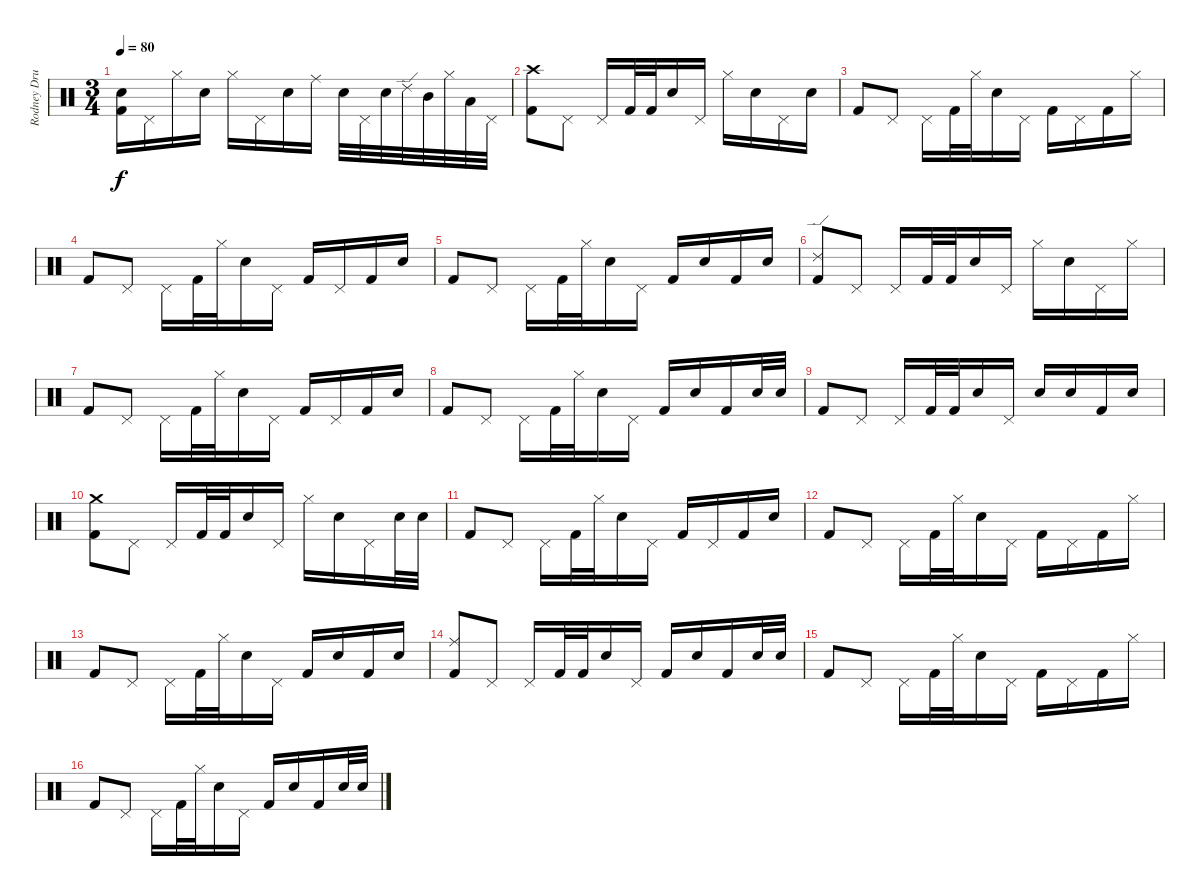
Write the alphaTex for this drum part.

\track ("Rodney Drums" "Rodney Dru") {instrument percussion}
\staff {score}
\articulation defaults
\ts (3 4)
\tempo 80
\clef neutral
\ks c
("Electric Snare (hit)" "Kick (hit) 2").16{dy f} "Pedal Hi-Hat (hit)".16 "Hi-Hat (closed)".16 "Electric Snare (hit)".16 "Hi-Hat (closed)".16 "Pedal Hi-Hat (hit)".16 "Electric Snare (hit)".16 "Ride (middle)".16 "Electric Snare (hit)".32 "Pedal Hi-Hat (hit)".32 "Electric Snare (hit)".32 "Ride (edge) 2".32 "Mid Tom (hit)".32 "Hi-Hat (closed)".32 "Low Tom (hit)".32 "Pedal Hi-Hat (hit)".32 |
("Crash high (hit)" "Kick (hit) 2").8 "Pedal Hi-Hat (hit)".8 "Pedal Hi-Hat (hit)".16 "Kick (hit) 2".32 "Kick (hit) 2".32 "Electric Snare (hit)".16 "Pedal Hi-Hat (hit)".16 "Hi-Hat (closed)".16 "Electric Snare (hit)".16 "Pedal Hi-Hat (hit)".16 "Electric Snare (hit)".16 |
"Kick (hit) 2".8 "Pedal Hi-Hat (hit)".8 "Pedal Hi-Hat (hit)".16 "Kick (hit) 2".32 "Hi-Hat (closed)".32 "Electric Snare (hit)".16 "Pedal Hi-Hat (hit)".16 "Kick (hit) 2".16 "Pedal Hi-Hat (hit)".16 "Kick (hit) 2".16 "Hi-Hat (closed)".16 |
"Kick (hit) 2".8 "Pedal Hi-Hat (hit)".8 "Pedal Hi-Hat (hit)".16 "Kick (hit) 2".32 "Hi-Hat (closed)".32 "Electric Snare (hit)".16 "Pedal Hi-Hat (hit)".16 "Kick (hit) 2".16 "Pedal Hi-Hat (hit)".16 "Kick (hit) 2".16 "Electric Snare (hit)".16 |
"Kick (hit) 2".8 "Pedal Hi-Hat (hit)".8 "Pedal Hi-Hat (hit)".16 "Kick (hit) 2".32 "Hi-Hat (closed)".32 "Electric Snare (hit)".16 "Pedal Hi-Hat (hit)".16 "Kick (hit) 2".16 "Electric Snare (hit)".16 "Kick (hit) 2".16 "Electric Snare (hit)".16 |
("Ride (edge) 2" "Kick (hit) 2").8 "Pedal Hi-Hat (hit)".8 "Pedal Hi-Hat (hit)".16 "Kick (hit) 2".32 "Kick (hit) 2".32 "Electric Snare (hit)".16 "Pedal Hi-Hat (hit)".16 "Hi-Hat (closed)".16 "Electric Snare (hit)".16 "Pedal Hi-Hat (hit)".16 "Hi-Hat (closed)".16 |
"Kick (hit) 2".8 "Pedal Hi-Hat (hit)".8 "Pedal Hi-Hat (hit)".16 "Kick (hit) 2".32 "Hi-Hat (closed)".32 "Electric Snare (hit)".16 "Pedal Hi-Hat (hit)".16 "Kick (hit) 2".16 "Pedal Hi-Hat (hit)".16 "Kick (hit) 2".16 "Electric Snare (hit)".16 |
"Kick (hit) 2".8 "Pedal Hi-Hat (hit)".8 "Pedal Hi-Hat (hit)".16 "Kick (hit) 2".32 "Hi-Hat (closed)".32 "Electric Snare (hit)".16 "Pedal Hi-Hat (hit)".16 "Kick (hit) 2".16 "Electric Snare (hit)".16 "Kick (hit) 2".16 "Electric Snare (hit)".32 "Electric Snare (hit)".32 |
"Kick (hit) 2".8 "Pedal Hi-Hat (hit)".8 "Pedal Hi-Hat (hit)".16 "Kick (hit) 2".32 "Kick (hit) 2".32 "Electric Snare (hit)".16 "Pedal Hi-Hat (hit)".16 "Electric Snare (hit)".16 "Electric Snare (hit)".16 "Kick (hit) 2".16 "Electric Snare (hit)".16 |
("Crash medium (hit)" "Kick (hit) 2").8 "Pedal Hi-Hat (hit)".8 "Pedal Hi-Hat (hit)".16 "Kick (hit) 2".32 "Kick (hit) 2".32 "Electric Snare (hit)".16 "Pedal Hi-Hat (hit)".16 "Hi-Hat (closed)".16 "Electric Snare (hit)".16 "Pedal Hi-Hat (hit)".16 "Electric Snare (hit)".32 "Electric Snare (hit)".32 |
"Kick (hit) 2".8 "Pedal Hi-Hat (hit)".8 "Pedal Hi-Hat (hit)".16 "Kick (hit) 2".32 "Hi-Hat (closed)".32 "Electric Snare (hit)".16 "Pedal Hi-Hat (hit)".16 "Kick (hit) 2".16 "Pedal Hi-Hat (hit)".16 "Kick (hit) 2".16 "Electric Snare (hit)".16 |
"Kick (hit) 2".8 "Pedal Hi-Hat (hit)".8 "Pedal Hi-Hat (hit)".16 "Kick (hit) 2".32 "Hi-Hat (closed)".32 "Electric Snare (hit)".16 "Pedal Hi-Hat (hit)".16 "Kick (hit) 2".16 "Pedal Hi-Hat (hit)".16 "Kick (hit) 2".16 "Hi-Hat (closed)".16 |
"Kick (hit) 2".8 "Pedal Hi-Hat (hit)".8 "Pedal Hi-Hat (hit)".16 "Kick (hit) 2".32 "Hi-Hat (closed)".32 "Electric Snare (hit)".16 "Pedal Hi-Hat (hit)".16 "Kick (hit) 2".16 "Electric Snare (hit)".16 "Kick (hit) 2".16 "Electric Snare (hit)".16 |
("Ride (middle)" "Kick (hit) 2").8 "Pedal Hi-Hat (hit)".8 "Pedal Hi-Hat (hit)".16 "Kick (hit) 2".32 "Kick (hit) 2".32 "Electric Snare (hit)".16 "Pedal Hi-Hat (hit)".16 "Kick (hit) 2".16 "Electric Snare (hit)".16 "Kick (hit) 2".16 "Electric Snare (hit)".32 "Electric Snare (hit)".32 |
"Kick (hit) 2".8 "Pedal Hi-Hat (hit)".8 "Pedal Hi-Hat (hit)".16 "Kick (hit) 2".32 "Hi-Hat (closed)".32 "Electric Snare (hit)".16 "Pedal Hi-Hat (hit)".16 "Kick (hit) 2".16 "Pedal Hi-Hat (hit)".16 "Kick (hit) 2".16 "Hi-Hat (closed)".16 |
"Kick (hit) 2".8 "Pedal Hi-Hat (hit)".8 "Pedal Hi-Hat (hit)".16 "Kick (hit) 2".32 "Hi-Hat (closed)".32 "Electric Snare (hit)".16 "Pedal Hi-Hat (hit)".16 "Kick (hit) 2".16 "Electric Snare (hit)".16 "Kick (hit) 2".16 "Electric Snare (hit)".32 "Electric Snare (hit)".32
